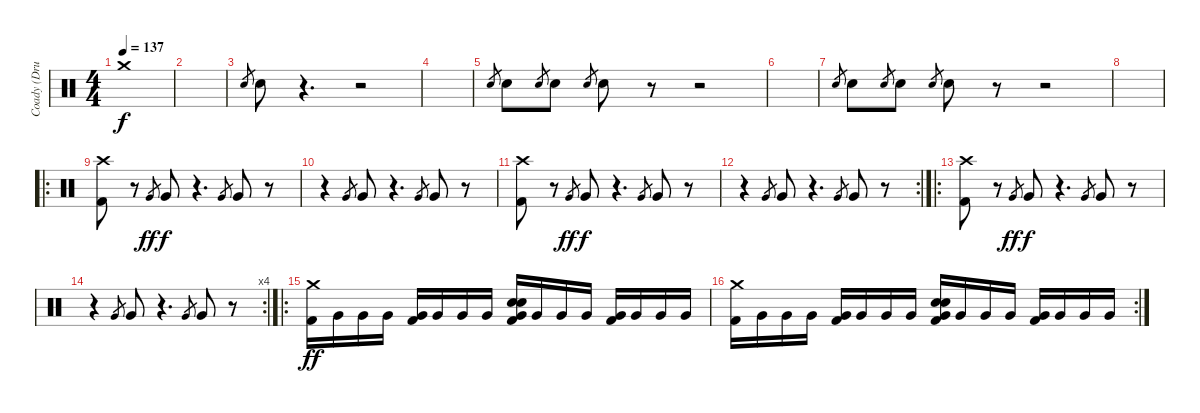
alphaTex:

\track ("Coady (Drums 2)" "Coady (Dru") {instrument percussion}
\staff {score}
\articulation defaults
\ts (4 4)
\tempo 137
\clef neutral
\ks c "Crash medium (hit)".1{dy f}
|
|
"Snare (hit) 2".8{gr} "Snare (hit) 2".8 r.4{d} r.2 |
|
"Snare (hit) 2".8{gr} "Snare (hit) 2".8 "Snare (hit) 2".8{gr} "Snare (hit) 2".8 "Snare (hit) 2".8{gr} "Snare (hit) 2".8 r.8 r.2 |
|
"Snare (hit) 2".8{gr} "Snare (hit) 2".8 "Snare (hit) 2".8{gr} "Snare (hit) 2".8 "Snare (hit) 2".8{gr} "Snare (hit) 2".8 r.8 r.2 |
|
\ro
("Kick (hit) 2" "Crash high (hit)").8 r.8 "Very Low Tom (hit)".8{gr dy ff} "Very Low Tom (hit)".8{dy f} r.4{d} "Very Low Tom (hit)".8{gr} "Very Low Tom (hit)".8 r.8 |
r.4 "Very Low Tom (hit)".8{gr} "Very Low Tom (hit)".8 r.4{d} "Very Low Tom (hit)".8{gr} "Very Low Tom (hit)".8 r.8 |
("Kick (hit) 2" "Crash high (hit)").8 r.8 "Very Low Tom (hit)".8{gr dy ff} "Very Low Tom (hit)".8{dy f} r.4{d} "Very Low Tom (hit)".8{gr} "Very Low Tom (hit)".8 r.8 |
\rc 2
r.4 "Very Low Tom (hit)".8{gr} "Very Low Tom (hit)".8 r.4{d} "Very Low Tom (hit)".8{gr} "Very Low Tom (hit)".8 r.8 |
\ro
("Kick (hit) 2" "Crash high (hit)").8 r.8 "Very Low Tom (hit)".8{gr dy ff} "Very Low Tom (hit)".8{dy f} r.4{d} "Very Low Tom (hit)".8{gr} "Very Low Tom (hit)".8 r.8 |
\rc 4
r.4 "Very Low Tom (hit)".8{gr} "Very Low Tom (hit)".8 r.4{d} "Very Low Tom (hit)".8{gr} "Very Low Tom (hit)".8 r.8 |
\ro
("Kick (hit) 2" "Crash medium (hit)").16{dy ff} "Very Low Tom (hit)".16 "Very Low Tom (hit)".16 "Very Low Tom (hit)".16 ("Very Low Tom (hit)" "Kick (hit) 2").16 "Very Low Tom (hit)".16 "Very Low Tom (hit)".16 "Very Low Tom (hit)".16 ("Very Low Tom (hit)" "Snare (hit) 2" "Electric Snare (hit)" "Kick (hit) 2").16 "Very Low Tom (hit)".16 "Very Low Tom (hit)".16 "Very Low Tom (hit)".16 ("Very Low Tom (hit)" "Kick (hit) 2").16 "Very Low Tom (hit)".16 "Very Low Tom (hit)".16 "Very Low Tom (hit)".16 |
\rc 2
("Kick (hit) 2" "Crash medium (hit)").16 "Very Low Tom (hit)".16 "Very Low Tom (hit)".16 "Very Low Tom (hit)".16 ("Very Low Tom (hit)" "Kick (hit) 2").16 "Very Low Tom (hit)".16 "Very Low Tom (hit)".16 "Very Low Tom (hit)".16 ("Very Low Tom (hit)" "Snare (hit) 2" "Electric Snare (hit)" "Kick (hit) 2").16 "Very Low Tom (hit)".16 "Very Low Tom (hit)".16 "Very Low Tom (hit)".16 ("Very Low Tom (hit)" "Kick (hit) 2").16 "Very Low Tom (hit)".16 "Very Low Tom (hit)".16 "Very Low Tom (hit)".16
